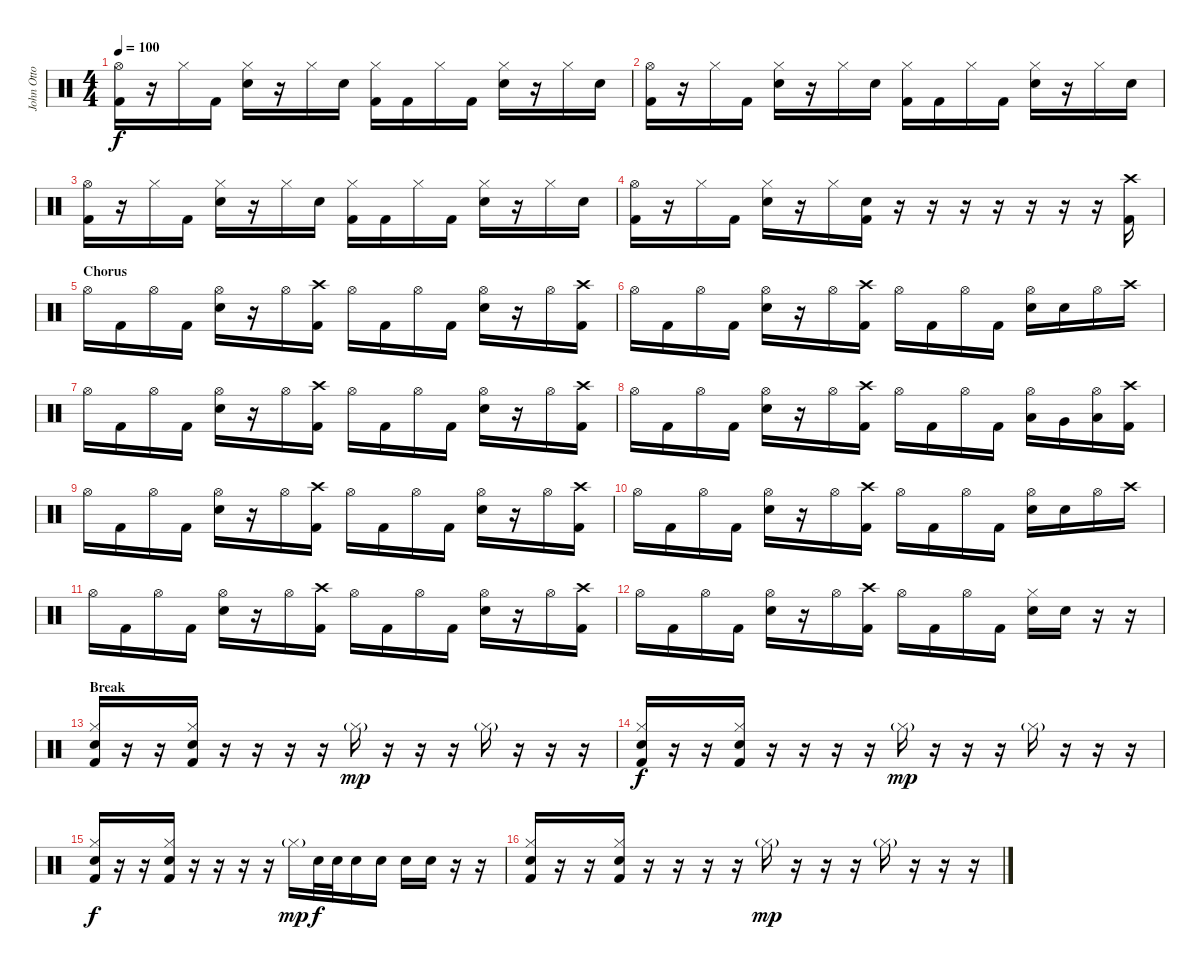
\track ("John Otto" "John Otto") {instrument percussion}
\staff {score}
\articulation defaults
\ts (4 4)
\tempo 100
\clef neutral
\ks c
("Hi-Hat (open)" "Kick (hit) 2").16{dy f} r.16 "Hi-Hat (closed)".16 "Kick (hit) 2".16 ("Hi-Hat (closed)" "Snare (hit) 2").16 r.16 "Hi-Hat (closed)".16 "Snare (hit) 2".16 ("Hi-Hat (closed)" "Kick (hit) 2").16 "Kick (hit) 2".16 "Hi-Hat (closed)".16 "Kick (hit) 2".16 ("Hi-Hat (closed)" "Snare (hit) 2").16 r.16 "Hi-Hat (closed)".16 "Snare (hit) 2".16 |
("Hi-Hat (open)" "Kick (hit) 2").16 r.16 "Hi-Hat (closed)".16 "Kick (hit) 2".16 ("Hi-Hat (closed)" "Snare (hit) 2").16 r.16 "Hi-Hat (closed)".16 "Snare (hit) 2".16 ("Hi-Hat (closed)" "Kick (hit) 2").16 "Kick (hit) 2".16 "Hi-Hat (closed)".16 "Kick (hit) 2".16 ("Hi-Hat (closed)" "Snare (hit) 2").16 r.16 "Hi-Hat (closed)".16 "Snare (hit) 2".16 |
("Hi-Hat (open)" "Kick (hit) 2").16 r.16 "Hi-Hat (closed)".16 "Kick (hit) 2".16 ("Hi-Hat (closed)" "Snare (hit) 2").16 r.16 "Hi-Hat (closed)".16 "Snare (hit) 2".16 ("Hi-Hat (closed)" "Kick (hit) 2").16 "Kick (hit) 2".16 "Hi-Hat (closed)".16 "Kick (hit) 2".16 ("Hi-Hat (closed)" "Snare (hit) 2").16 r.16 "Hi-Hat (closed)".16 "Snare (hit) 2".16 |
("Hi-Hat (open)" "Kick (hit) 2").16 r.16 "Hi-Hat (closed)".16 "Kick (hit) 2".16 ("Hi-Hat (closed)" "Snare (hit) 2").16 r.16 "Hi-Hat (closed)".16 ("Snare (hit) 2" "Kick (hit) 2").16 r.16 r.16 r.16 r.16 r.16 r.16 r.16 ("Crash high (hit)" "Kick (hit) 2").16 |
\section ("" "Chorus")
"Hi-Hat (open)".16 "Kick (hit) 2".16 "Hi-Hat (open)".16 "Kick (hit) 2".16 ("Hi-Hat (open)" "Snare (hit) 2").16 r.16 "Hi-Hat (open)".16 ("Crash high (hit)" "Kick (hit) 2").16 "Hi-Hat (open)".16 "Kick (hit) 2".16 "Hi-Hat (open)".16 "Kick (hit) 2".16 ("Hi-Hat (open)" "Snare (hit) 2").16 r.16 "Hi-Hat (open)".16 ("Crash high (hit)" "Kick (hit) 2").16 |
"Hi-Hat (open)".16 "Kick (hit) 2".16 "Hi-Hat (open)".16 "Kick (hit) 2".16 ("Hi-Hat (open)" "Snare (hit) 2").16 r.16 "Hi-Hat (open)".16 ("Crash high (hit)" "Kick (hit) 2").16 "Hi-Hat (open)".16 "Kick (hit) 2".16 "Hi-Hat (open)".16 "Kick (hit) 2".16 ("Hi-Hat (open)" "Snare (hit) 2").16 "Snare (hit) 2".16 "Hi-Hat (open)".16 "Crash high (hit)".16 |
"Hi-Hat (open)".16 "Kick (hit) 2".16 "Hi-Hat (open)".16 "Kick (hit) 2".16 ("Hi-Hat (open)" "Snare (hit) 2").16 r.16 "Hi-Hat (open)".16 ("Crash high (hit)" "Kick (hit) 2").16 "Hi-Hat (open)".16 "Kick (hit) 2".16 "Hi-Hat (open)".16 "Kick (hit) 2".16 ("Hi-Hat (open)" "Snare (hit) 2").16 r.16 "Hi-Hat (open)".16 ("Crash high (hit)" "Kick (hit) 2").16 |
"Hi-Hat (open)".16 "Kick (hit) 2".16 "Hi-Hat (open)".16 "Kick (hit) 2".16 ("Hi-Hat (open)" "Snare (hit) 2").16 r.16 "Hi-Hat (open)".16 ("Crash high (hit)" "Kick (hit) 2").16 "Hi-Hat (open)".16 "Kick (hit) 2".16 "Hi-Hat (open)".16 "Kick (hit) 2".16 ("Hi-Hat (open)" "Low Floor Tom (hit)").16 "Very Low Tom (hit)".16 ("Hi-Hat (open)" "Low Tom (hit)").16 ("Crash high (hit)" "Kick (hit) 2").16 |
"Hi-Hat (open)".16 "Kick (hit) 2".16 "Hi-Hat (open)".16 "Kick (hit) 2".16 ("Hi-Hat (open)" "Snare (hit) 2").16 r.16 "Hi-Hat (open)".16 ("Crash high (hit)" "Kick (hit) 2").16 "Hi-Hat (open)".16 "Kick (hit) 2".16 "Hi-Hat (open)".16 "Kick (hit) 2".16 ("Hi-Hat (open)" "Snare (hit) 2").16 r.16 "Hi-Hat (open)".16 ("Crash high (hit)" "Kick (hit) 2").16 |
"Hi-Hat (open)".16 "Kick (hit) 2".16 "Hi-Hat (open)".16 "Kick (hit) 2".16 ("Hi-Hat (open)" "Snare (hit) 2").16 r.16 "Hi-Hat (open)".16 ("Crash high (hit)" "Kick (hit) 2").16 "Hi-Hat (open)".16 "Kick (hit) 2".16 "Hi-Hat (open)".16 "Kick (hit) 2".16 ("Hi-Hat (open)" "Snare (hit) 2").16 "Snare (hit) 2".16 "Hi-Hat (open)".16 "Crash high (hit)".16 |
"Hi-Hat (open)".16 "Kick (hit) 2".16 "Hi-Hat (open)".16 "Kick (hit) 2".16 ("Hi-Hat (open)" "Snare (hit) 2").16 r.16 "Hi-Hat (open)".16 ("Crash high (hit)" "Kick (hit) 2").16 "Hi-Hat (open)".16 "Kick (hit) 2".16 "Hi-Hat (open)".16 "Kick (hit) 2".16 ("Hi-Hat (open)" "Snare (hit) 2").16 r.16 "Hi-Hat (open)".16 ("Crash high (hit)" "Kick (hit) 2").16 |
"Hi-Hat (open)".16 "Kick (hit) 2".16 "Hi-Hat (open)".16 "Kick (hit) 2".16 ("Hi-Hat (open)" "Snare (hit) 2").16 r.16 "Hi-Hat (open)".16 ("Crash high (hit)" "Kick (hit) 2").16 "Hi-Hat (open)".16 "Kick (hit) 2".16 "Hi-Hat (open)".16 "Kick (hit) 2".16 ("Hi-Hat (closed)" "Snare (hit) 2").16 "Snare (hit) 2".16 r.16 r.16 |
\section ("" "Break")
("Hi-Hat (closed)" "Snare (hit) 2" "Kick (hit) 2").16 r.16 r.16 ("Hi-Hat (closed)" "Snare (hit) 2" "Kick (hit) 2").16 r.16 r.16 r.16 r.16 "Hi-Hat (closed)"{g}.16{dy mp} r.16 r.16 r.16 "Hi-Hat (closed)"{g}.16 r.16 r.16 r.16 |
("Hi-Hat (closed)" "Snare (hit) 2" "Kick (hit) 2").16{dy f} r.16 r.16 ("Hi-Hat (closed)" "Snare (hit) 2" "Kick (hit) 2").16 r.16 r.16 r.16 r.16 "Hi-Hat (closed)"{g}.16{dy mp} r.16 r.16 r.16 "Hi-Hat (closed)"{g}.16 r.16 r.16 r.16 |
("Hi-Hat (closed)" "Snare (hit) 2" "Kick (hit) 2").16{dy f} r.16 r.16 ("Hi-Hat (closed)" "Snare (hit) 2" "Kick (hit) 2").16 r.16 r.16 r.16 r.16 "Hi-Hat (closed)"{g}.16{dy mp} "Snare (hit) 2".32{dy f} "Snare (hit) 2".32 "Snare (hit) 2".16 "Snare (hit) 2".16 "Snare (hit) 2".16 "Snare (hit) 2".16 r.16 r.16 |
("Hi-Hat (closed)" "Snare (hit) 2" "Kick (hit) 2").16 r.16 r.16 ("Hi-Hat (closed)" "Snare (hit) 2" "Kick (hit) 2").16 r.16 r.16 r.16 r.16 "Hi-Hat (closed)"{g}.16{dy mp} r.16 r.16 r.16 "Hi-Hat (closed)"{g}.16 r.16 r.16 r.16
